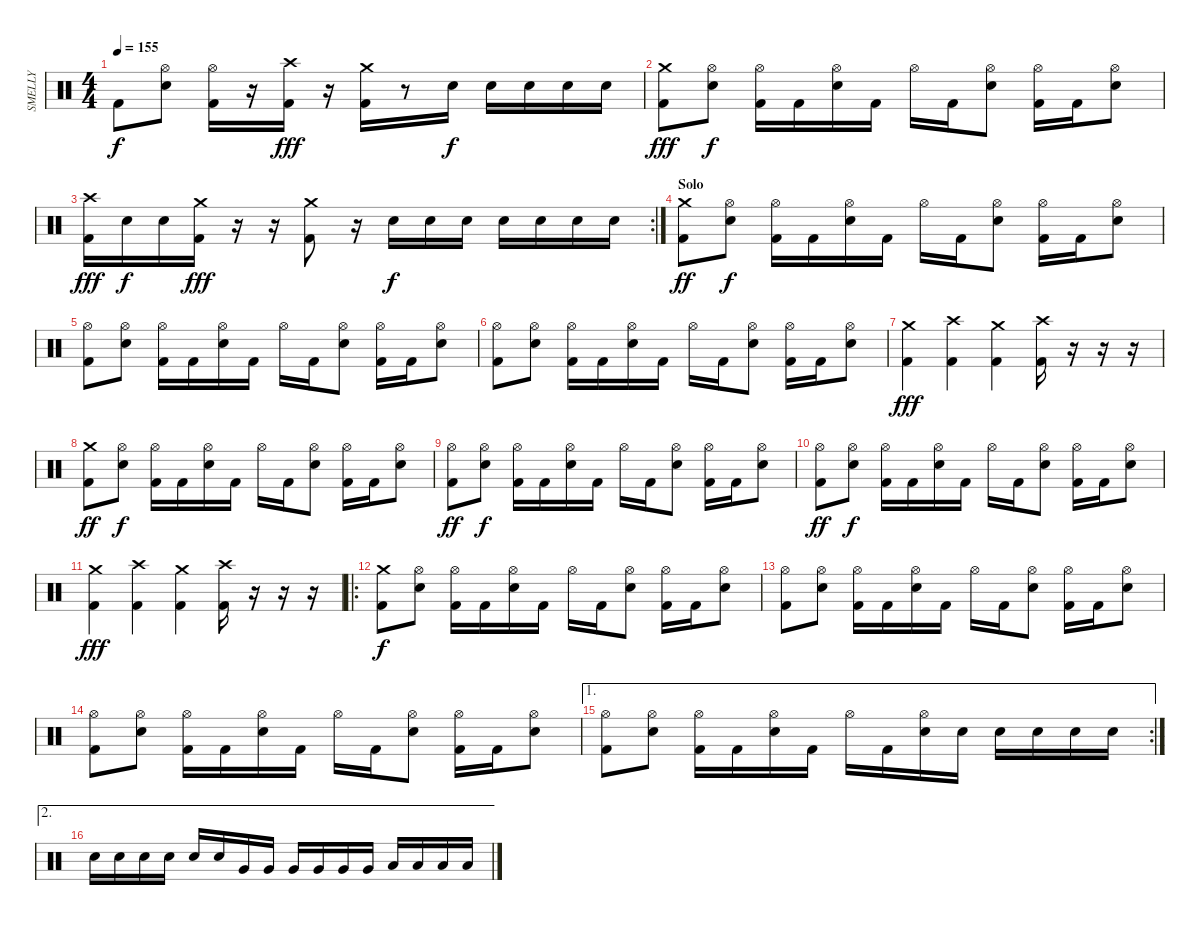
\track ("SMELLY" "SMELLY") {instrument percussion}
\staff {score}
\articulation defaults
\ts (4 4)
\tempo 155
\clef neutral
\ks c "Kick (hit) 2".8{dy f}
("Hi-Hat (open)" "Electric Snare (hit)").8 ("Hi-Hat (open)" "Kick (hit) 2").16 r.16 ("Crash high (hit)" "Kick (hit) 2").16{dy fff} r.16 ("Crash medium (hit)" "Kick (hit) 2").16 r.8 "Electric Snare (hit)".16{dy f} "Electric Snare (hit)".16 "Electric Snare (hit)".16 "Electric Snare (hit)".16 "Electric Snare (hit)".16 |
("Crash medium (hit)" "Kick (hit) 2").8{dy fff} ("Hi-Hat (open)" "Electric Snare (hit)").8{dy f} ("Hi-Hat (open)" "Kick (hit) 2").16 "Kick (hit) 2".16 ("Hi-Hat (open)" "Electric Snare (hit)").16 "Kick (hit) 2".16 "Hi-Hat (open)".16 "Kick (hit) 2".16 ("Hi-Hat (open)" "Electric Snare (hit)").8 ("Hi-Hat (open)" "Kick (hit) 2").16 "Kick (hit) 2".16 ("Hi-Hat (open)" "Electric Snare (hit)").8 |
\rc 2
("Crash high (hit)" "Kick (hit) 2").16{dy fff} "Electric Snare (hit)".16{dy f} "Electric Snare (hit)".16 ("Crash medium (hit)" "Kick (hit) 2").16{dy fff} r.16 r.16 ("Crash medium (hit)" "Kick (hit) 2").8 r.16 "Electric Snare (hit)".16{dy f} "Electric Snare (hit)".16 "Electric Snare (hit)".16 "Electric Snare (hit)".16 "Electric Snare (hit)".16 "Electric Snare (hit)".16 "Electric Snare (hit)".16 |
\section ("" "Solo")
("Crash medium (hit)" "Kick (hit) 2").8{dy ff} ("Hi-Hat (open)" "Electric Snare (hit)").8{dy f} ("Hi-Hat (open)" "Kick (hit) 2").16 "Kick (hit) 2".16 ("Hi-Hat (open)" "Electric Snare (hit)").16 "Kick (hit) 2".16 "Hi-Hat (open)".16 "Kick (hit) 2".16 ("Hi-Hat (open)" "Electric Snare (hit)").8 ("Hi-Hat (open)" "Kick (hit) 2").16 "Kick (hit) 2".16 ("Hi-Hat (open)" "Electric Snare (hit)").8 |
("Hi-Hat (open)" "Kick (hit) 2").8 ("Hi-Hat (open)" "Electric Snare (hit)").8 ("Hi-Hat (open)" "Kick (hit) 2").16 "Kick (hit) 2".16 ("Hi-Hat (open)" "Electric Snare (hit)").16 "Kick (hit) 2".16 "Hi-Hat (open)".16 "Kick (hit) 2".16 ("Hi-Hat (open)" "Electric Snare (hit)").8 ("Hi-Hat (open)" "Kick (hit) 2").16 "Kick (hit) 2".16 ("Hi-Hat (open)" "Electric Snare (hit)").8 |
("Hi-Hat (open)" "Kick (hit) 2").8 ("Hi-Hat (open)" "Electric Snare (hit)").8 ("Hi-Hat (open)" "Kick (hit) 2").16 "Kick (hit) 2".16 ("Hi-Hat (open)" "Electric Snare (hit)").16 "Kick (hit) 2".16 "Hi-Hat (open)".16 "Kick (hit) 2".16 ("Hi-Hat (open)" "Electric Snare (hit)").8 ("Hi-Hat (open)" "Kick (hit) 2").16 "Kick (hit) 2".16 ("Hi-Hat (open)" "Electric Snare (hit)").8 |
("Crash medium (hit)" "Kick (hit) 2").4{dy fff} ("Crash high (hit)" "Kick (hit) 2").4 ("Crash medium (hit)" "Kick (hit) 2").4 ("Crash high (hit)" "Kick (hit) 2").16 r.16 r.16 r.16 |
("Crash medium (hit)" "Kick (hit) 2").8{dy ff} ("Hi-Hat (open)" "Electric Snare (hit)").8{dy f} ("Hi-Hat (open)" "Kick (hit) 2").16 "Kick (hit) 2".16 ("Hi-Hat (open)" "Electric Snare (hit)").16 "Kick (hit) 2".16 "Hi-Hat (open)".16 "Kick (hit) 2".16 ("Hi-Hat (open)" "Electric Snare (hit)").8 ("Hi-Hat (open)" "Kick (hit) 2").16 "Kick (hit) 2".16 ("Hi-Hat (open)" "Electric Snare (hit)").8 |
("Hi-Hat (open)" "Kick (hit) 2").8{dy ff} ("Hi-Hat (open)" "Electric Snare (hit)").8{dy f} ("Hi-Hat (open)" "Kick (hit) 2").16 "Kick (hit) 2".16 ("Hi-Hat (open)" "Electric Snare (hit)").16 "Kick (hit) 2".16 "Hi-Hat (open)".16 "Kick (hit) 2".16 ("Hi-Hat (open)" "Electric Snare (hit)").8 ("Hi-Hat (open)" "Kick (hit) 2").16 "Kick (hit) 2".16 ("Hi-Hat (open)" "Electric Snare (hit)").8 |
("Hi-Hat (open)" "Kick (hit) 2").8{dy ff} ("Hi-Hat (open)" "Electric Snare (hit)").8{dy f} ("Hi-Hat (open)" "Kick (hit) 2").16 "Kick (hit) 2".16 ("Hi-Hat (open)" "Electric Snare (hit)").16 "Kick (hit) 2".16 "Hi-Hat (open)".16 "Kick (hit) 2".16 ("Hi-Hat (open)" "Electric Snare (hit)").8 ("Hi-Hat (open)" "Kick (hit) 2").16 "Kick (hit) 2".16 ("Hi-Hat (open)" "Electric Snare (hit)").8 |
("Crash medium (hit)" "Kick (hit) 2").4{dy fff} ("Crash high (hit)" "Kick (hit) 2").4 ("Crash medium (hit)" "Kick (hit) 2").4 ("Crash high (hit)" "Kick (hit) 2").16 r.16 r.16 r.16 |
\ro
("Crash medium (hit)" "Kick (hit) 2").8{dy f} ("Hi-Hat (open)" "Electric Snare (hit)").8 ("Hi-Hat (open)" "Kick (hit) 2").16 "Kick (hit) 2".16 ("Hi-Hat (open)" "Electric Snare (hit)").16 "Kick (hit) 2".16 "Hi-Hat (open)".16 "Kick (hit) 2".16 ("Hi-Hat (open)" "Electric Snare (hit)").8 ("Hi-Hat (open)" "Kick (hit) 2").16 "Kick (hit) 2".16 ("Hi-Hat (open)" "Electric Snare (hit)").8 |
("Hi-Hat (open)" "Kick (hit) 2").8 ("Hi-Hat (open)" "Electric Snare (hit)").8 ("Hi-Hat (open)" "Kick (hit) 2").16 "Kick (hit) 2".16 ("Hi-Hat (open)" "Electric Snare (hit)").16 "Kick (hit) 2".16 "Hi-Hat (open)".16 "Kick (hit) 2".16 ("Hi-Hat (open)" "Electric Snare (hit)").8 ("Hi-Hat (open)" "Kick (hit) 2").16 "Kick (hit) 2".16 ("Hi-Hat (open)" "Electric Snare (hit)").8 |
("Hi-Hat (open)" "Kick (hit) 2").8 ("Hi-Hat (open)" "Electric Snare (hit)").8 ("Hi-Hat (open)" "Kick (hit) 2").16 "Kick (hit) 2".16 ("Hi-Hat (open)" "Electric Snare (hit)").16 "Kick (hit) 2".16 "Hi-Hat (open)".16 "Kick (hit) 2".16 ("Hi-Hat (open)" "Electric Snare (hit)").8 ("Hi-Hat (open)" "Kick (hit) 2").16 "Kick (hit) 2".16 ("Hi-Hat (open)" "Electric Snare (hit)").8 |
\ae 1
\rc 2
("Hi-Hat (open)" "Kick (hit) 2").8 ("Hi-Hat (open)" "Electric Snare (hit)").8 ("Hi-Hat (open)" "Kick (hit) 2").16 "Kick (hit) 2".16 ("Hi-Hat (open)" "Electric Snare (hit)").16 "Kick (hit) 2".16 "Hi-Hat (open)".16 "Kick (hit) 2".16 ("Hi-Hat (open)" "Electric Snare (hit)").16 "Electric Snare (hit)".16 "Electric Snare (hit)".16 "Electric Snare (hit)".16 "Electric Snare (hit)".16 "Electric Snare (hit)".16 |
\ae 2 "Electric Snare (hit)".16 "Electric Snare (hit)".16 "Electric Snare (hit)".16 "Electric Snare (hit)".16 "Electric Snare (hit)".16 "Electric Snare (hit)".16 "Very Low Tom (hit)".16 "Very Low Tom (hit)".16 "Very Low Tom (hit)".16 "Very Low Tom (hit)".16 "Very Low Tom (hit)".16 "Very Low Tom (hit)".16 "Low Floor Tom (hit)".16 "Low Floor Tom (hit)".16 "Low Floor Tom (hit)".16 "Low Floor Tom (hit)".16
